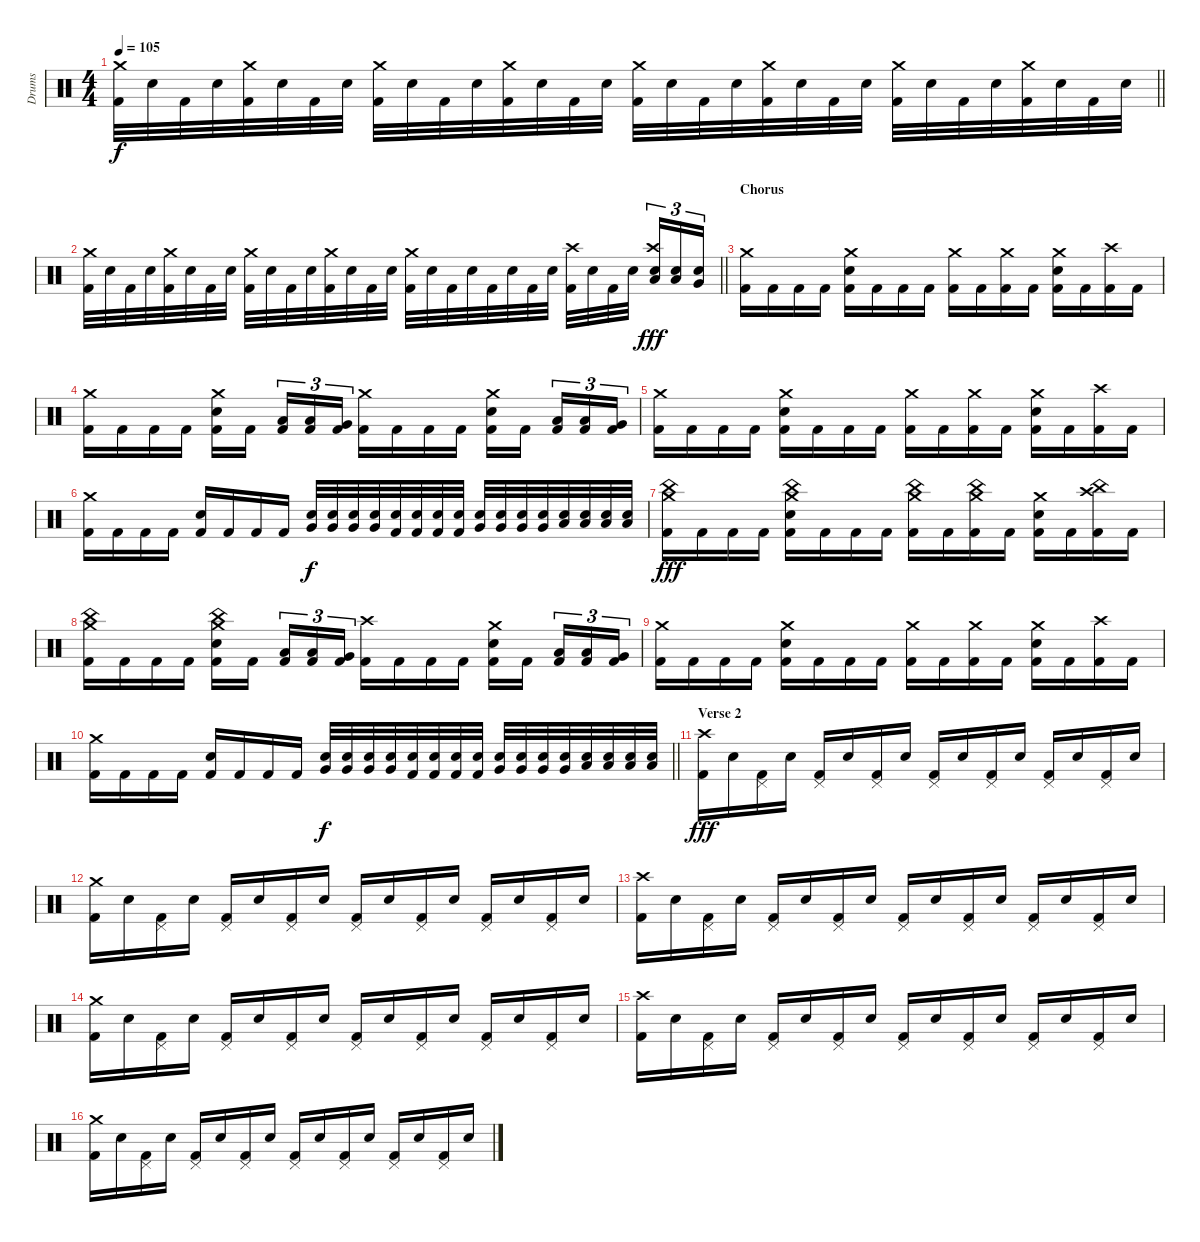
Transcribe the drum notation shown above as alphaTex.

\track ("Drums" "Drums") {instrument percussion}
\staff {score}
\articulation defaults
\ts (4 4)
\tempo 105
\clef neutral
\barLineRight lightlight
\ks c
("Crash medium (hit)" "Kick (hit) 2").32{dy f} "Electric Snare (hit)".32 "Kick (hit) 2".32 "Electric Snare (hit)".32 ("Crash medium (hit)" "Kick (hit) 2").32 "Electric Snare (hit)".32 "Kick (hit) 2".32 "Electric Snare (hit)".32 ("Crash medium (hit)" "Kick (hit) 2").32 "Electric Snare (hit)".32 "Kick (hit) 2".32 "Electric Snare (hit)".32 ("Crash medium (hit)" "Kick (hit) 2").32 "Electric Snare (hit)".32 "Kick (hit) 2".32 "Electric Snare (hit)".32 ("Crash medium (hit)" "Kick (hit) 2").32 "Electric Snare (hit)".32 "Kick (hit) 2".32 "Electric Snare (hit)".32 ("Crash medium (hit)" "Kick (hit) 2").32 "Electric Snare (hit)".32 "Kick (hit) 2".32 "Electric Snare (hit)".32 ("Crash medium (hit)" "Kick (hit) 2").32 "Electric Snare (hit)".32 "Kick (hit) 2".32 "Electric Snare (hit)".32 ("Crash medium (hit)" "Kick (hit) 2").32 "Electric Snare (hit)".32 "Kick (hit) 2".32 "Electric Snare (hit)".32 |
\barLineRight lightlight
("Crash medium (hit)" "Kick (hit) 2").32 "Electric Snare (hit)".32 "Kick (hit) 2".32 "Electric Snare (hit)".32 ("Crash medium (hit)" "Kick (hit) 2").32 "Electric Snare (hit)".32 "Kick (hit) 2".32 "Electric Snare (hit)".32 ("Crash medium (hit)" "Kick (hit) 2").32 "Electric Snare (hit)".32 "Kick (hit) 2".32 "Electric Snare (hit)".32 ("Crash medium (hit)" "Kick (hit) 2").32 "Electric Snare (hit)".32 "Kick (hit) 2".32 "Electric Snare (hit)".32 ("Crash medium (hit)" "Kick (hit) 2").32 "Electric Snare (hit)".32 "Kick (hit) 2".32 "Electric Snare (hit)".32 "Kick (hit) 2".32 "Electric Snare (hit)".32 "Kick (hit) 2".32 "Electric Snare (hit)".32 ("Crash high (hit)" "Kick (hit) 2").32 "Electric Snare (hit)".32 "Kick (hit) 2".32 "Electric Snare (hit)".32{beam splitsecondary} ("Crash high (hit)" "Low Floor Tom (hit)" "Electric Snare (hit)").16{tu (3 2) dy fff} ("Low Tom (hit)" "Electric Snare (hit)").16{tu (3 2)} ("Very Low Tom (hit)" "Electric Snare (hit)").16{tu (3 2)} |
\section ("" "Chorus")
("Crash medium (hit)" "Kick (hit) 2").16 "Kick (hit) 2".16 "Kick (hit) 2".16 "Kick (hit) 2".16 ("Crash medium (hit)" "Electric Snare (hit)" "Kick (hit) 2").16 "Kick (hit) 2".16 "Kick (hit) 2".16 "Kick (hit) 2".16 ("Crash medium (hit)" "Kick (hit) 2").16 "Kick (hit) 2".16 ("Crash medium (hit)" "Kick (hit) 2").16 "Kick (hit) 2".16 ("Crash medium (hit)" "Electric Snare (hit)" "Kick (hit) 2").16 "Kick (hit) 2".16 ("Crash high (hit)" "Kick (hit) 2").16 "Kick (hit) 2".16 |
("Crash medium (hit)" "Kick (hit) 2").16 "Kick (hit) 2".16 "Kick (hit) 2".16 "Kick (hit) 2".16 ("Crash medium (hit)" "Electric Snare (hit)" "Kick (hit) 2").16 "Kick (hit) 2".16{beam splitsecondary} ("Low Floor Tom (hit)" "Kick (hit) 2").16{tu (3 2)} ("Low Tom (hit)" "Kick (hit) 2").16{tu (3 2)} ("Very Low Tom (hit)" "Kick (hit) 2").16{tu (3 2)} ("Crash medium (hit)" "Kick (hit) 2").16 "Kick (hit) 2".16 "Kick (hit) 2".16 "Kick (hit) 2".16 ("Crash medium (hit)" "Electric Snare (hit)" "Kick (hit) 2").16 "Kick (hit) 2".16{beam splitsecondary} ("Low Floor Tom (hit)" "Kick (hit) 2").16{tu (3 2)} ("Low Tom (hit)" "Kick (hit) 2").16{tu (3 2)} ("Very Low Tom (hit)" "Kick (hit) 2").16{tu (3 2)} |
("Crash medium (hit)" "Kick (hit) 2").16 "Kick (hit) 2".16 "Kick (hit) 2".16 "Kick (hit) 2".16 ("Crash medium (hit)" "Electric Snare (hit)" "Kick (hit) 2").16 "Kick (hit) 2".16 "Kick (hit) 2".16 "Kick (hit) 2".16 ("Crash medium (hit)" "Kick (hit) 2").16 "Kick (hit) 2".16 ("Crash medium (hit)" "Kick (hit) 2").16 "Kick (hit) 2".16 ("Crash medium (hit)" "Electric Snare (hit)" "Kick (hit) 2").16 "Kick (hit) 2".16 ("Crash high (hit)" "Kick (hit) 2").16 "Kick (hit) 2".16 |
("Crash medium (hit)" "Kick (hit) 2").16 "Kick (hit) 2".16 "Kick (hit) 2".16 "Kick (hit) 2".16 ("Electric Snare (hit)" "Kick (hit) 2").16 "Kick (hit) 2".16 "Kick (hit) 2".16 "Kick (hit) 2".16 ("Electric Snare (hit)" "Very Low Tom (hit)").32{dy f} ("Electric Snare (hit)" "Very Low Tom (hit)").32 ("Electric Snare (hit)" "Very Low Tom (hit)").32 ("Electric Snare (hit)" "Very Low Tom (hit)").32 ("Electric Snare (hit)" "Kick (hit) 2").32 ("Electric Snare (hit)" "Kick (hit) 2").32 ("Electric Snare (hit)" "Kick (hit) 2").32 ("Electric Snare (hit)" "Kick (hit) 2").32 ("Electric Snare (hit)" "Very Low Tom (hit)").32 ("Electric Snare (hit)" "Very Low Tom (hit)").32 ("Electric Snare (hit)" "Very Low Tom (hit)").32 ("Electric Snare (hit)" "Very Low Tom (hit)").32 ("Electric Snare (hit)" "Low Tom (hit)").32 ("Electric Snare (hit)" "Low Tom (hit)").32 ("Electric Snare (hit)" "Low Tom (hit)").32 ("Electric Snare (hit)" "Low Tom (hit)").32 |
("China (hit)" "Crash medium (hit)" "Kick (hit) 2").16{dy fff} "Kick (hit) 2".16 "Kick (hit) 2".16 "Kick (hit) 2".16 ("Crash medium (hit)" "China (hit)" "Electric Snare (hit)" "Kick (hit) 2").16 "Kick (hit) 2".16 "Kick (hit) 2".16 "Kick (hit) 2".16 ("Crash medium (hit)" "China (hit)" "Kick (hit) 2").16 "Kick (hit) 2".16 ("Crash medium (hit)" "China (hit)" "Kick (hit) 2").16 "Kick (hit) 2".16 ("Crash medium (hit)" "Electric Snare (hit)" "Kick (hit) 2").16 "Kick (hit) 2".16 ("Crash high (hit)" "China (hit)" "Kick (hit) 2").16 "Kick (hit) 2".16 |
("China (hit)" "Crash medium (hit)" "Kick (hit) 2").16 "Kick (hit) 2".16 "Kick (hit) 2".16 "Kick (hit) 2".16 ("Crash medium (hit)" "China (hit)" "Electric Snare (hit)" "Kick (hit) 2").16 "Kick (hit) 2".16{beam splitsecondary} ("Low Floor Tom (hit)" "Kick (hit) 2").16{tu (3 2)} ("Low Tom (hit)" "Kick (hit) 2").16{tu (3 2)} ("Very Low Tom (hit)" "Kick (hit) 2").16{tu (3 2)} ("Crash high (hit)" "Kick (hit) 2").16 "Kick (hit) 2".16 "Kick (hit) 2".16 "Kick (hit) 2".16 ("Crash medium (hit)" "Electric Snare (hit)" "Kick (hit) 2").16 "Kick (hit) 2".16{beam splitsecondary} ("Low Floor Tom (hit)" "Kick (hit) 2").16{tu (3 2)} ("Low Tom (hit)" "Kick (hit) 2").16{tu (3 2)} ("Very Low Tom (hit)" "Kick (hit) 2").16{tu (3 2)} |
("Crash medium (hit)" "Kick (hit) 2").16 "Kick (hit) 2".16 "Kick (hit) 2".16 "Kick (hit) 2".16 ("Crash medium (hit)" "Electric Snare (hit)" "Kick (hit) 2").16 "Kick (hit) 2".16 "Kick (hit) 2".16 "Kick (hit) 2".16 ("Crash medium (hit)" "Kick (hit) 2").16 "Kick (hit) 2".16 ("Crash medium (hit)" "Kick (hit) 2").16 "Kick (hit) 2".16 ("Crash medium (hit)" "Electric Snare (hit)" "Kick (hit) 2").16 "Kick (hit) 2".16 ("Crash high (hit)" "Kick (hit) 2").16 "Kick (hit) 2".16 |
\barLineRight lightlight
("Crash medium (hit)" "Kick (hit) 2").16 "Kick (hit) 2".16 "Kick (hit) 2".16 "Kick (hit) 2".16 ("Electric Snare (hit)" "Kick (hit) 2").16 "Kick (hit) 2".16 "Kick (hit) 2".16 "Kick (hit) 2".16 ("Electric Snare (hit)" "Very Low Tom (hit)").32{dy f} ("Electric Snare (hit)" "Very Low Tom (hit)").32 ("Electric Snare (hit)" "Very Low Tom (hit)").32 ("Electric Snare (hit)" "Very Low Tom (hit)").32 ("Electric Snare (hit)" "Kick (hit) 2").32 ("Electric Snare (hit)" "Kick (hit) 2").32 ("Electric Snare (hit)" "Kick (hit) 2").32 ("Electric Snare (hit)" "Kick (hit) 2").32 ("Electric Snare (hit)" "Very Low Tom (hit)").32 ("Electric Snare (hit)" "Very Low Tom (hit)").32 ("Electric Snare (hit)" "Very Low Tom (hit)").32 ("Electric Snare (hit)" "Very Low Tom (hit)").32 ("Electric Snare (hit)" "Low Tom (hit)").32 ("Electric Snare (hit)" "Low Tom (hit)").32 ("Electric Snare (hit)" "Low Tom (hit)").32 ("Electric Snare (hit)" "Low Tom (hit)").32 |
\section ("" "Verse 2")
("Crash high (hit)" "Kick (hit) 2").16{dy fff} "Electric Snare (hit)".16 ("Pedal Hi-Hat (hit)" "Kick (hit) 2").16 "Electric Snare (hit)".16 ("Pedal Hi-Hat (hit)" "Kick (hit) 2").16 "Electric Snare (hit)".16 ("Pedal Hi-Hat (hit)" "Kick (hit) 2").16 "Electric Snare (hit)".16 ("Pedal Hi-Hat (hit)" "Kick (hit) 2").16 "Electric Snare (hit)".16 ("Pedal Hi-Hat (hit)" "Kick (hit) 2").16 "Electric Snare (hit)".16 ("Pedal Hi-Hat (hit)" "Kick (hit) 2").16 "Electric Snare (hit)".16 ("Pedal Hi-Hat (hit)" "Kick (hit) 2").16 "Electric Snare (hit)".16 |
("Crash medium (hit)" "Kick (hit) 2").16 "Electric Snare (hit)".16 ("Pedal Hi-Hat (hit)" "Kick (hit) 2").16 "Electric Snare (hit)".16 ("Pedal Hi-Hat (hit)" "Kick (hit) 2").16 "Electric Snare (hit)".16 ("Pedal Hi-Hat (hit)" "Kick (hit) 2").16 "Electric Snare (hit)".16 ("Pedal Hi-Hat (hit)" "Kick (hit) 2").16 "Electric Snare (hit)".16 ("Pedal Hi-Hat (hit)" "Kick (hit) 2").16 "Electric Snare (hit)".16 ("Pedal Hi-Hat (hit)" "Kick (hit) 2").16 "Electric Snare (hit)".16 ("Pedal Hi-Hat (hit)" "Kick (hit) 2").16 "Electric Snare (hit)".16 |
("Crash high (hit)" "Kick (hit) 2").16 "Electric Snare (hit)".16 ("Pedal Hi-Hat (hit)" "Kick (hit) 2").16 "Electric Snare (hit)".16 ("Pedal Hi-Hat (hit)" "Kick (hit) 2").16 "Electric Snare (hit)".16 ("Pedal Hi-Hat (hit)" "Kick (hit) 2").16 "Electric Snare (hit)".16 ("Pedal Hi-Hat (hit)" "Kick (hit) 2").16 "Electric Snare (hit)".16 ("Pedal Hi-Hat (hit)" "Kick (hit) 2").16 "Electric Snare (hit)".16 ("Pedal Hi-Hat (hit)" "Kick (hit) 2").16 "Electric Snare (hit)".16 ("Pedal Hi-Hat (hit)" "Kick (hit) 2").16 "Electric Snare (hit)".16 |
("Crash medium (hit)" "Kick (hit) 2").16 "Electric Snare (hit)".16 ("Pedal Hi-Hat (hit)" "Kick (hit) 2").16 "Electric Snare (hit)".16 ("Pedal Hi-Hat (hit)" "Kick (hit) 2").16 "Electric Snare (hit)".16 ("Pedal Hi-Hat (hit)" "Kick (hit) 2").16 "Electric Snare (hit)".16 ("Pedal Hi-Hat (hit)" "Kick (hit) 2").16 "Electric Snare (hit)".16 ("Pedal Hi-Hat (hit)" "Kick (hit) 2").16 "Electric Snare (hit)".16 ("Pedal Hi-Hat (hit)" "Kick (hit) 2").16 "Electric Snare (hit)".16 ("Pedal Hi-Hat (hit)" "Kick (hit) 2").16 "Electric Snare (hit)".16 |
("Crash high (hit)" "Kick (hit) 2").16 "Electric Snare (hit)".16 ("Pedal Hi-Hat (hit)" "Kick (hit) 2").16 "Electric Snare (hit)".16 ("Pedal Hi-Hat (hit)" "Kick (hit) 2").16 "Electric Snare (hit)".16 ("Pedal Hi-Hat (hit)" "Kick (hit) 2").16 "Electric Snare (hit)".16 ("Pedal Hi-Hat (hit)" "Kick (hit) 2").16 "Electric Snare (hit)".16 ("Pedal Hi-Hat (hit)" "Kick (hit) 2").16 "Electric Snare (hit)".16 ("Pedal Hi-Hat (hit)" "Kick (hit) 2").16 "Electric Snare (hit)".16 ("Pedal Hi-Hat (hit)" "Kick (hit) 2").16 "Electric Snare (hit)".16 |
("Crash medium (hit)" "Kick (hit) 2").16 "Electric Snare (hit)".16 ("Pedal Hi-Hat (hit)" "Kick (hit) 2").16 "Electric Snare (hit)".16 ("Pedal Hi-Hat (hit)" "Kick (hit) 2").16 "Electric Snare (hit)".16 ("Pedal Hi-Hat (hit)" "Kick (hit) 2").16 "Electric Snare (hit)".16 ("Pedal Hi-Hat (hit)" "Kick (hit) 2").16 "Electric Snare (hit)".16 ("Pedal Hi-Hat (hit)" "Kick (hit) 2").16 "Electric Snare (hit)".16 ("Pedal Hi-Hat (hit)" "Kick (hit) 2").16 "Electric Snare (hit)".16 ("Pedal Hi-Hat (hit)" "Kick (hit) 2").16 "Electric Snare (hit)".16
